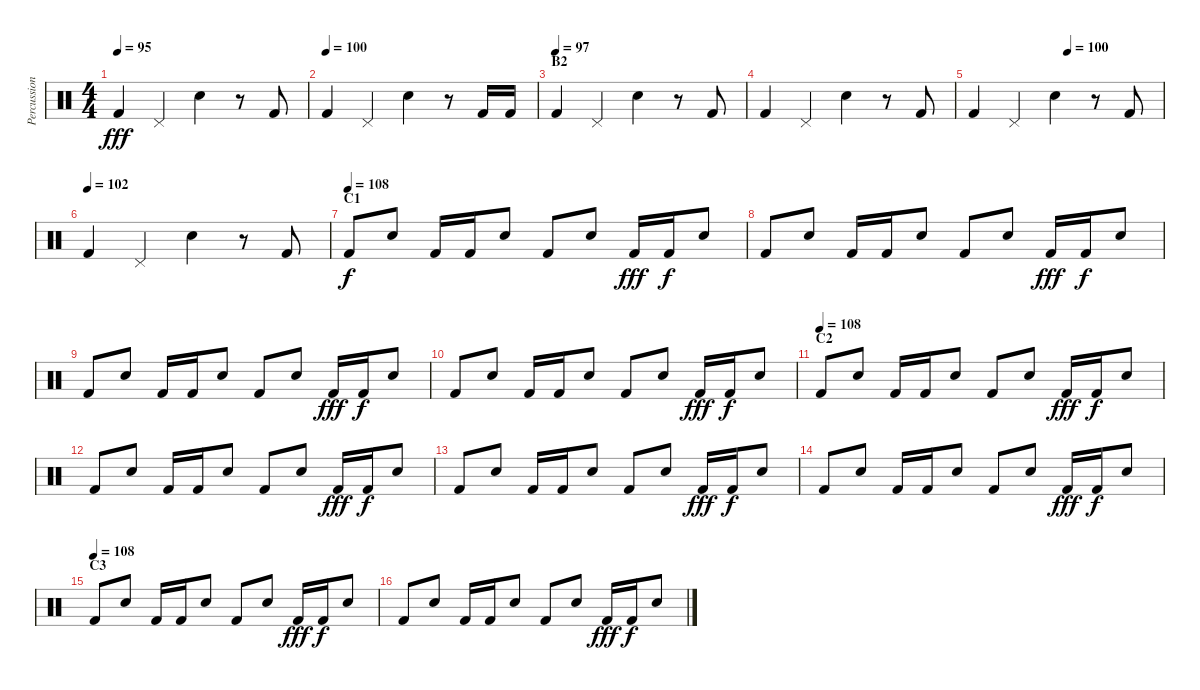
\track ("Percussion" "Percussion") {instrument percussion}
\staff {score}
\articulation defaults
\ts (4 4)
\tempo 95
\clef neutral
\ks c "Kick (hit) 2".4{dy fff} "Pedal Hi-Hat (hit)".4 "Electric Snare (hit)".4
r.8 "Kick (hit) 2".8 |
\tempo (100)
"Kick (hit) 2".4 "Pedal Hi-Hat (hit)".4 "Electric Snare (hit)".4 r.8 "Kick (hit) 2".16 "Kick (hit) 2".16 |
\section ("" "B2")
\tempo (97)
"Kick (hit) 2".4 "Pedal Hi-Hat (hit)".4 "Electric Snare (hit)".4 r.8 "Kick (hit) 2".8 |
"Kick (hit) 2".4 "Pedal Hi-Hat (hit)".4 "Electric Snare (hit)".4 r.8 "Kick (hit) 2".8 |
\tempo (100 0.5)
"Kick (hit) 2".4 "Pedal Hi-Hat (hit)".4 "Electric Snare (hit)".4 r.8 "Kick (hit) 2".8 |
\tempo (102)
"Kick (hit) 2".4 "Pedal Hi-Hat (hit)".4 "Electric Snare (hit)".4 r.8 "Kick (hit) 2".8 |
\section ("" "C1")
\tempo (108)
"Kick (hit) 2".8{dy f} "Electric Snare (hit)".8 "Kick (hit) 2".16 "Kick (hit) 2".16 "Electric Snare (hit)".8 "Kick (hit) 2".8 "Electric Snare (hit)".8 "Kick (hit) 2".16{dy fff} "Kick (hit) 2".16{dy f} "Electric Snare (hit)".8 |
"Kick (hit) 2".8 "Electric Snare (hit)".8 "Kick (hit) 2".16 "Kick (hit) 2".16 "Electric Snare (hit)".8 "Kick (hit) 2".8 "Electric Snare (hit)".8 "Kick (hit) 2".16{dy fff} "Kick (hit) 2".16{dy f} "Electric Snare (hit)".8 |
"Kick (hit) 2".8 "Electric Snare (hit)".8 "Kick (hit) 2".16 "Kick (hit) 2".16 "Electric Snare (hit)".8 "Kick (hit) 2".8 "Electric Snare (hit)".8 "Kick (hit) 2".16{dy fff} "Kick (hit) 2".16{dy f} "Electric Snare (hit)".8 |
"Kick (hit) 2".8 "Electric Snare (hit)".8 "Kick (hit) 2".16 "Kick (hit) 2".16 "Electric Snare (hit)".8 "Kick (hit) 2".8 "Electric Snare (hit)".8 "Kick (hit) 2".16{dy fff} "Kick (hit) 2".16{dy f} "Electric Snare (hit)".8 |
\section ("" "C2")
\tempo (108)
"Kick (hit) 2".8 "Electric Snare (hit)".8 "Kick (hit) 2".16 "Kick (hit) 2".16 "Electric Snare (hit)".8 "Kick (hit) 2".8 "Electric Snare (hit)".8 "Kick (hit) 2".16{dy fff} "Kick (hit) 2".16{dy f} "Electric Snare (hit)".8 |
"Kick (hit) 2".8 "Electric Snare (hit)".8 "Kick (hit) 2".16 "Kick (hit) 2".16 "Electric Snare (hit)".8 "Kick (hit) 2".8 "Electric Snare (hit)".8 "Kick (hit) 2".16{dy fff} "Kick (hit) 2".16{dy f} "Electric Snare (hit)".8 |
"Kick (hit) 2".8 "Electric Snare (hit)".8 "Kick (hit) 2".16 "Kick (hit) 2".16 "Electric Snare (hit)".8 "Kick (hit) 2".8 "Electric Snare (hit)".8 "Kick (hit) 2".16{dy fff} "Kick (hit) 2".16{dy f} "Electric Snare (hit)".8 |
"Kick (hit) 2".8 "Electric Snare (hit)".8 "Kick (hit) 2".16 "Kick (hit) 2".16 "Electric Snare (hit)".8 "Kick (hit) 2".8 "Electric Snare (hit)".8 "Kick (hit) 2".16{dy fff} "Kick (hit) 2".16{dy f} "Electric Snare (hit)".8 |
\section ("" "C3")
\tempo (108)
"Kick (hit) 2".8 "Electric Snare (hit)".8 "Kick (hit) 2".16 "Kick (hit) 2".16 "Electric Snare (hit)".8 "Kick (hit) 2".8 "Electric Snare (hit)".8 "Kick (hit) 2".16{dy fff} "Kick (hit) 2".16{dy f} "Electric Snare (hit)".8 |
"Kick (hit) 2".8 "Electric Snare (hit)".8 "Kick (hit) 2".16 "Kick (hit) 2".16 "Electric Snare (hit)".8 "Kick (hit) 2".8 "Electric Snare (hit)".8 "Kick (hit) 2".16{dy fff} "Kick (hit) 2".16{dy f} "Electric Snare (hit)".8
